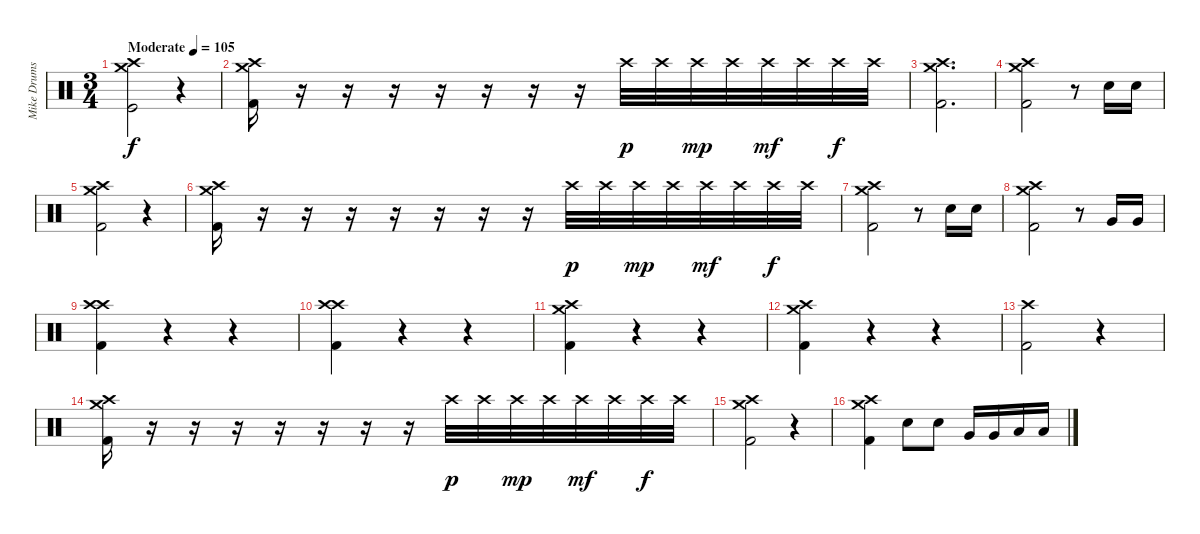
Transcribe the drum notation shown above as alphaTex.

\track ("Mike Drums" "Mike Drums") {instrument percussion}
\staff {score}
\articulation defaults
\ts (3 4)
\tempo (105 "Moderate")
\clef neutral
\ks c
("Crash high (hit)" "Kick (hit)" "Crash medium (hit)").2{dy f} r.4 |
("Crash high (hit)" "Kick (hit) 2" "Crash medium (hit)").16 r.16 r.16 r.16 r.16 r.16 r.16 r.16 "Crash high (hit)".32{dy p} "Crash high (hit)".32 "Crash high (hit)".32{dy mp} "Crash high (hit)".32 "Crash high (hit)".32{dy mf} "Crash high (hit)".32 "Crash high (hit)".32{dy f} "Crash high (hit)".32 |
("Crash high (hit)" "Kick (hit) 2" "Crash medium (hit)").2{d} |
("Crash high (hit)" "Kick (hit) 2" "Crash medium (hit)").2 r.8 "Electric Snare (hit)".16 "Electric Snare (hit)".16 |
("Crash high (hit)" "Kick (hit) 2" "Crash medium (hit)").2 r.4 |
("Crash high (hit)" "Kick (hit) 2" "Crash medium (hit)").16 r.16 r.16 r.16 r.16 r.16 r.16 r.16 "Crash high (hit)".32{dy p} "Crash high (hit)".32 "Crash high (hit)".32{dy mp} "Crash high (hit)".32 "Crash high (hit)".32{dy mf} "Crash high (hit)".32 "Crash high (hit)".32{dy f} "Crash high (hit)".32 |
("Crash high (hit)" "Kick (hit) 2" "Crash medium (hit)").2 r.8 "Electric Snare (hit)".16 "Electric Snare (hit)".16 |
("Crash high (hit)" "Kick (hit) 2" "Crash medium (hit)").2 r.8 "Very Low Tom (hit)".16 "Very Low Tom (hit)".16 |
("Crash high (hit)" "Crash high (hit)" "Kick (hit) 2").4 r.4 r.4 |
("Crash high (hit)" "Crash high (hit)" "Kick (hit) 2").4 r.4 r.4 |
("Crash high (hit)" "Crash medium (hit)" "Kick (hit) 2").4 r.4 r.4 |
("Crash high (hit)" "Crash medium (hit)" "Kick (hit) 2").4 r.4 r.4 |
("Crash high (hit)" "Kick (hit) 2").2 r.4 |
("Crash high (hit)" "Kick (hit) 2" "Crash medium (hit)").16 r.16 r.16 r.16 r.16 r.16 r.16 r.16 "Crash high (hit)".32{dy p} "Crash high (hit)".32 "Crash high (hit)".32{dy mp} "Crash high (hit)".32 "Crash high (hit)".32{dy mf} "Crash high (hit)".32 "Crash high (hit)".32{dy f} "Crash high (hit)".32 |
("Crash high (hit)" "Kick (hit) 2" "Crash medium (hit)").2 r.4 |
("Crash high (hit)" "Kick (hit) 2" "Crash medium (hit)").4 "Electric Snare (hit)".8 "Electric Snare (hit)".8 "Very Low Tom (hit)".16 "Very Low Tom (hit)".16 "Low Floor Tom (hit)".16 "Low Floor Tom (hit)".16
